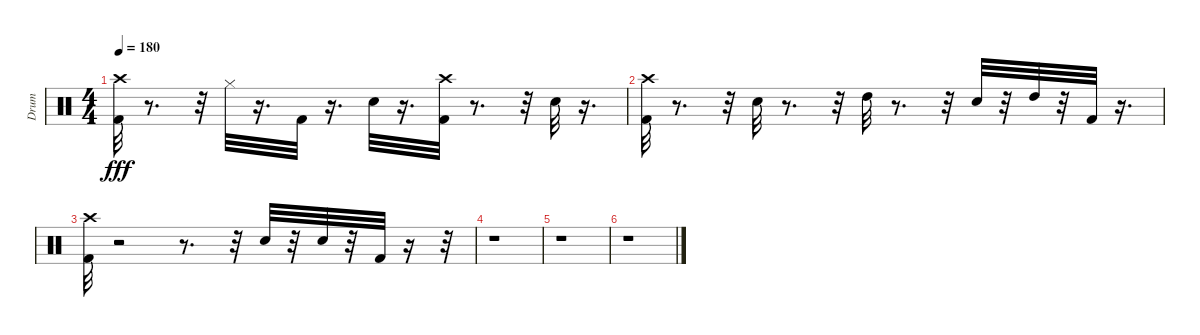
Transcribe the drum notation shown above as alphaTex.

\track ("Drum" "Drum") {instrument percussion}
\staff {score}
\articulation defaults
\ts (4 4)
\tempo 180
\clef neutral
\ks c
("Kick (hit) 2" "Crash high (hit)").32{dy fff} r.8{d} r.32 "Hi-Hat (closed)".32 r.16{d} "Kick (hit) 2".32 r.16{d} "Snare (hit) 2".32 r.16{d} ("Kick (hit) 2" "Crash high (hit)").32 r.8{d} r.32 "Snare (hit) 2".32 r.16{d} |
("Kick (hit) 2" "Crash high (hit)").32 r.8{d} r.32 "Snare (hit) 2".32 r.8{d} r.32 "High Tom (hit)".32 r.8{d} r.32 "Snare (hit) 2".32 r.32 "High Tom (hit)".32 r.32 "Kick (hit) 2".32 r.16{d} |
("Kick (hit) 2" "Crash high (hit)").32 r.2 r.8{d} r.32 "Snare (hit) 2".32 r.32 "Snare (hit) 2".32 r.32 "Kick (hit) 2".32 r.16 r.32 |
r.1 |
r.1 |
r.1
